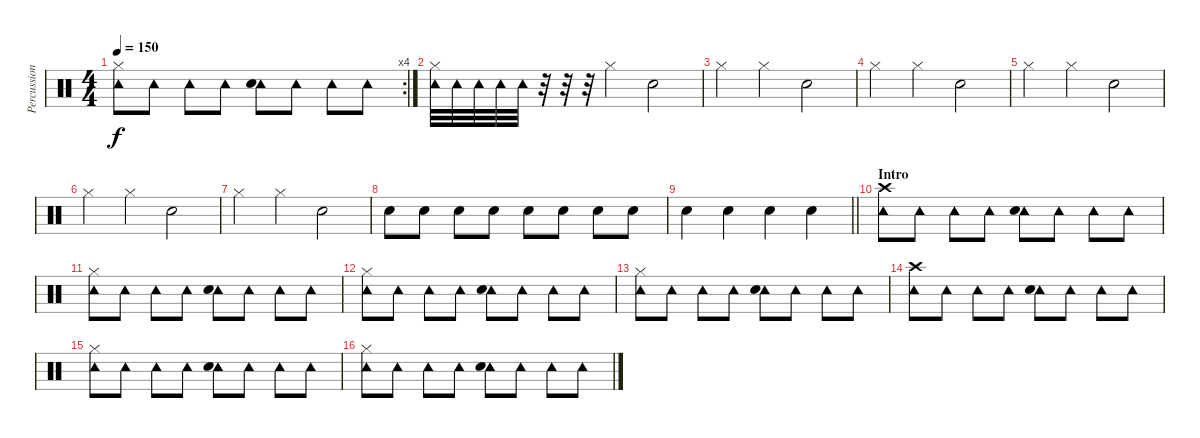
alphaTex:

\track ("Percussioni" "Percussion") {instrument percussion}
\staff {score}
\articulation defaults
\rc 4
\ts (4 4)
\tempo 150
\clef neutral
\ks c
("Tambourine (hit)" "Hi-Hat (closed)").8{dy f} "Tambourine (hit)".8 "Tambourine (hit)".8 "Tambourine (hit)".8 ("Tambourine (hit)" "Snare (hit) 2").8 "Tambourine (hit)".8 "Tambourine (hit)".8 "Tambourine (hit)".8 |
("Tambourine (hit)" "Hi-Hat (closed)").32 "Tambourine (hit)".32 "Tambourine (hit)".32 "Tambourine (hit)".32 "Tambourine (hit)".32 r.32 r.32 r.32 "Hi-Hat (closed)".4 "Snare (hit) 2".2 |
"Hi-Hat (closed)".4 "Hi-Hat (closed)".4 "Snare (hit) 2".2 |
"Hi-Hat (closed)".4 "Hi-Hat (closed)".4 "Snare (hit) 2".2 |
"Hi-Hat (closed)".4 "Hi-Hat (closed)".4 "Snare (hit) 2".2 |
"Hi-Hat (closed)".4 "Hi-Hat (closed)".4 "Snare (hit) 2".2 |
"Hi-Hat (closed)".4 "Hi-Hat (closed)".4 "Snare (hit) 2".2 |
"Snare (hit) 2".8 "Snare (hit) 2".8 "Snare (hit) 2".8 "Snare (hit) 2".8 "Snare (hit) 2".8 "Snare (hit) 2".8 "Snare (hit) 2".8 "Snare (hit) 2".8 |
\barLineRight lightlight "Snare (hit) 2".4 "Snare (hit) 2".4 "Snare (hit) 2".4 "Snare (hit) 2".4
|
\section ("" "Intro")
("Tambourine (hit)" "Crash high (hit)").8 "Tambourine (hit)".8 "Tambourine (hit)".8 "Tambourine (hit)".8 ("Tambourine (hit)" "Snare (hit) 2").8 "Tambourine (hit)".8 "Tambourine (hit)".8 "Tambourine (hit)".8 |
("Tambourine (hit)" "Hi-Hat (closed)").8 "Tambourine (hit)".8 "Tambourine (hit)".8 "Tambourine (hit)".8 ("Tambourine (hit)" "Snare (hit) 2").8 "Tambourine (hit)".8 "Tambourine (hit)".8 "Tambourine (hit)".8 |
("Tambourine (hit)" "Hi-Hat (closed)").8 "Tambourine (hit)".8 "Tambourine (hit)".8 "Tambourine (hit)".8 ("Tambourine (hit)" "Snare (hit) 2").8 "Tambourine (hit)".8 "Tambourine (hit)".8 "Tambourine (hit)".8 |
("Tambourine (hit)" "Hi-Hat (closed)").8 "Tambourine (hit)".8 "Tambourine (hit)".8 "Tambourine (hit)".8 ("Tambourine (hit)" "Snare (hit) 2").8 "Tambourine (hit)".8 "Tambourine (hit)".8 "Tambourine (hit)".8 |
("Tambourine (hit)" "Crash high (hit)").8 "Tambourine (hit)".8 "Tambourine (hit)".8 "Tambourine (hit)".8 ("Tambourine (hit)" "Snare (hit) 2").8 "Tambourine (hit)".8 "Tambourine (hit)".8 "Tambourine (hit)".8 |
("Tambourine (hit)" "Hi-Hat (closed)").8 "Tambourine (hit)".8 "Tambourine (hit)".8 "Tambourine (hit)".8 ("Tambourine (hit)" "Snare (hit) 2").8 "Tambourine (hit)".8 "Tambourine (hit)".8 "Tambourine (hit)".8 |
("Tambourine (hit)" "Hi-Hat (closed)").8 "Tambourine (hit)".8 "Tambourine (hit)".8 "Tambourine (hit)".8 ("Tambourine (hit)" "Snare (hit) 2").8 "Tambourine (hit)".8 "Tambourine (hit)".8 "Tambourine (hit)".8
